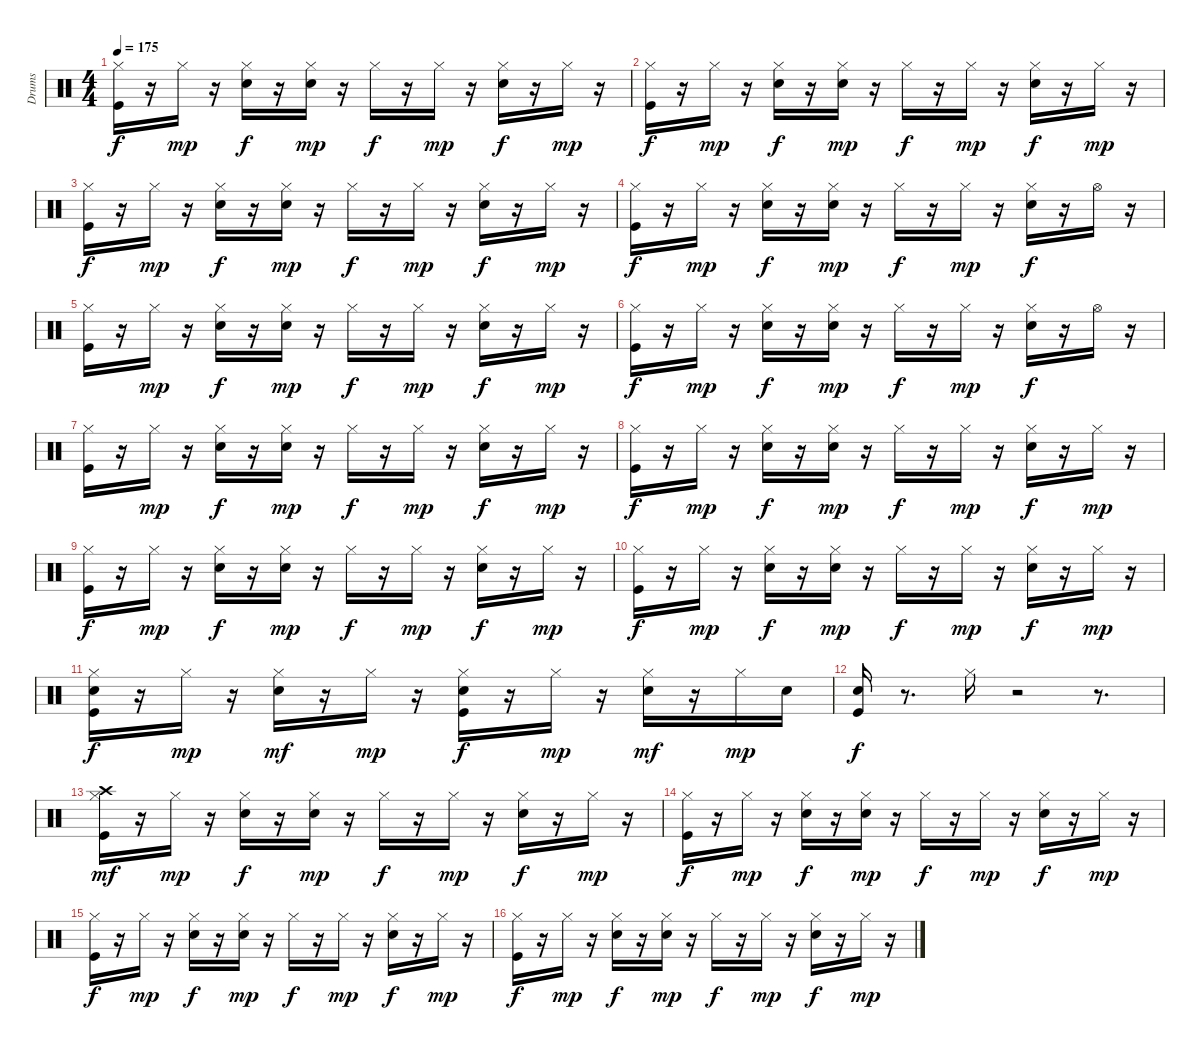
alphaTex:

\track ("Drums" "Drums") {instrument percussion}
\staff {score}
\articulation defaults
\ts (4 4)
\tempo 175
\clef neutral
\ks c
("Kick (hit)" "Hi-Hat (closed)").16{dy f} r.16 "Hi-Hat (closed)".16{dy mp} r.16 ("Snare (hit) 2" "Hi-Hat (closed)").16{dy f} r.16 ("Snare (hit) 2" "Hi-Hat (closed)").16{dy mp} r.16 "Hi-Hat (closed)".16{dy f} r.16 "Hi-Hat (closed)".16{dy mp} r.16 ("Snare (hit) 2" "Hi-Hat (closed)").16{dy f} r.16 "Hi-Hat (closed)".16{dy mp} r.16 |
("Kick (hit)" "Hi-Hat (closed)").16{dy f} r.16 "Hi-Hat (closed)".16{dy mp} r.16 ("Snare (hit) 2" "Hi-Hat (closed)").16{dy f} r.16 ("Snare (hit) 2" "Hi-Hat (closed)").16{dy mp} r.16 "Hi-Hat (closed)".16{dy f} r.16 "Hi-Hat (closed)".16{dy mp} r.16 ("Snare (hit) 2" "Hi-Hat (closed)").16{dy f} r.16 "Hi-Hat (closed)".16{dy mp} r.16 |
("Kick (hit)" "Hi-Hat (closed)").16{dy f} r.16 "Hi-Hat (closed)".16{dy mp} r.16 ("Snare (hit) 2" "Hi-Hat (closed)").16{dy f} r.16 ("Snare (hit) 2" "Hi-Hat (closed)").16{dy mp} r.16 "Hi-Hat (closed)".16{dy f} r.16 "Hi-Hat (closed)".16{dy mp} r.16 ("Snare (hit) 2" "Hi-Hat (closed)").16{dy f} r.16 "Hi-Hat (closed)".16{dy mp} r.16 |
("Kick (hit)" "Hi-Hat (closed)").16{dy f} r.16 "Hi-Hat (closed)".16{dy mp} r.16 ("Snare (hit) 2" "Hi-Hat (closed)").16{dy f} r.16 ("Snare (hit) 2" "Hi-Hat (closed)").16{dy mp} r.16 "Hi-Hat (closed)".16{dy f} r.16 "Hi-Hat (closed)".16{dy mp} r.16 ("Snare (hit) 2" "Hi-Hat (closed)").16{dy f} r.16 "Hi-Hat (open)".16 r.16 |
("Kick (hit)" "Hi-Hat (closed)").16 r.16 "Hi-Hat (closed)".16{dy mp} r.16 ("Snare (hit) 2" "Hi-Hat (closed)").16{dy f} r.16 ("Snare (hit) 2" "Hi-Hat (closed)").16{dy mp} r.16 "Hi-Hat (closed)".16{dy f} r.16 "Hi-Hat (closed)".16{dy mp} r.16 ("Snare (hit) 2" "Hi-Hat (closed)").16{dy f} r.16 "Hi-Hat (closed)".16{dy mp} r.16 |
("Kick (hit)" "Hi-Hat (closed)").16{dy f} r.16 "Hi-Hat (closed)".16{dy mp} r.16 ("Snare (hit) 2" "Hi-Hat (closed)").16{dy f} r.16 ("Snare (hit) 2" "Hi-Hat (closed)").16{dy mp} r.16 "Hi-Hat (closed)".16{dy f} r.16 "Hi-Hat (closed)".16{dy mp} r.16 ("Snare (hit) 2" "Hi-Hat (closed)").16{dy f} r.16 "Hi-Hat (open)".16 r.16 |
("Kick (hit)" "Hi-Hat (closed)").16 r.16 "Hi-Hat (closed)".16{dy mp} r.16 ("Snare (hit) 2" "Hi-Hat (closed)").16{dy f} r.16 ("Snare (hit) 2" "Hi-Hat (closed)").16{dy mp} r.16 "Hi-Hat (closed)".16{dy f} r.16 "Hi-Hat (closed)".16{dy mp} r.16 ("Snare (hit) 2" "Hi-Hat (closed)").16{dy f} r.16 "Hi-Hat (closed)".16{dy mp} r.16 |
("Kick (hit)" "Hi-Hat (closed)").16{dy f} r.16 "Hi-Hat (closed)".16{dy mp} r.16 ("Snare (hit) 2" "Hi-Hat (closed)").16{dy f} r.16 ("Snare (hit) 2" "Hi-Hat (closed)").16{dy mp} r.16 "Hi-Hat (closed)".16{dy f} r.16 "Hi-Hat (closed)".16{dy mp} r.16 ("Snare (hit) 2" "Hi-Hat (closed)").16{dy f} r.16 "Hi-Hat (closed)".16{dy mp} r.16 |
("Kick (hit)" "Hi-Hat (closed)").16{dy f} r.16 "Hi-Hat (closed)".16{dy mp} r.16 ("Snare (hit) 2" "Hi-Hat (closed)").16{dy f} r.16 ("Snare (hit) 2" "Hi-Hat (closed)").16{dy mp} r.16 "Hi-Hat (closed)".16{dy f} r.16 "Hi-Hat (closed)".16{dy mp} r.16 ("Snare (hit) 2" "Hi-Hat (closed)").16{dy f} r.16 "Hi-Hat (closed)".16{dy mp} r.16 |
("Kick (hit)" "Hi-Hat (closed)").16{dy f} r.16 "Hi-Hat (closed)".16{dy mp} r.16 ("Snare (hit) 2" "Hi-Hat (closed)").16{dy f} r.16 ("Snare (hit) 2" "Hi-Hat (closed)").16{dy mp} r.16 "Hi-Hat (closed)".16{dy f} r.16 "Hi-Hat (closed)".16{dy mp} r.16 ("Snare (hit) 2" "Hi-Hat (closed)").16{dy f} r.16 "Hi-Hat (closed)".16{dy mp} r.16 |
("Kick (hit)" "Snare (hit) 2" "Hi-Hat (closed)").16{dy f} r.16 "Hi-Hat (closed)".16{dy mp} r.16 ("Snare (hit) 2" "Hi-Hat (closed)").16{dy mf} r.16 "Hi-Hat (closed)".16{dy mp} r.16 ("Kick (hit)" "Snare (hit) 2" "Hi-Hat (closed)").16{dy f} r.16 "Hi-Hat (closed)".16{dy mp} r.16 ("Snare (hit) 2" "Hi-Hat (closed)").16{dy mf} r.16 "Hi-Hat (closed)".16{dy mp} "Snare (hit) 2".16 |
("Kick (hit)" "Snare (hit) 2").16{dy f} r.8{d} "Hi-Hat (closed)".16 r.2 r.8{d} |
("Kick (hit)" "Hi-Hat (closed)" "Crash high (hit)").16{dy mf} r.16 "Hi-Hat (closed)".16{dy mp} r.16 ("Snare (hit) 2" "Hi-Hat (closed)").16{dy f} r.16 ("Snare (hit) 2" "Hi-Hat (closed)").16{dy mp} r.16 "Hi-Hat (closed)".16{dy f} r.16 "Hi-Hat (closed)".16{dy mp} r.16 ("Snare (hit) 2" "Hi-Hat (closed)").16{dy f} r.16 "Hi-Hat (closed)".16{dy mp} r.16 |
("Kick (hit)" "Hi-Hat (closed)").16{dy f} r.16 "Hi-Hat (closed)".16{dy mp} r.16 ("Snare (hit) 2" "Hi-Hat (closed)").16{dy f} r.16 ("Snare (hit) 2" "Hi-Hat (closed)").16{dy mp} r.16 "Hi-Hat (closed)".16{dy f} r.16 "Hi-Hat (closed)".16{dy mp} r.16 ("Snare (hit) 2" "Hi-Hat (closed)").16{dy f} r.16 "Hi-Hat (closed)".16{dy mp} r.16 |
("Kick (hit)" "Hi-Hat (closed)").16{dy f} r.16 "Hi-Hat (closed)".16{dy mp} r.16 ("Snare (hit) 2" "Hi-Hat (closed)").16{dy f} r.16 ("Snare (hit) 2" "Hi-Hat (closed)").16{dy mp} r.16 "Hi-Hat (closed)".16{dy f} r.16 "Hi-Hat (closed)".16{dy mp} r.16 ("Snare (hit) 2" "Hi-Hat (closed)").16{dy f} r.16 "Hi-Hat (closed)".16{dy mp} r.16 |
("Kick (hit)" "Hi-Hat (closed)").16{dy f} r.16 "Hi-Hat (closed)".16{dy mp} r.16 ("Snare (hit) 2" "Hi-Hat (closed)").16{dy f} r.16 ("Snare (hit) 2" "Hi-Hat (closed)").16{dy mp} r.16 "Hi-Hat (closed)".16{dy f} r.16 "Hi-Hat (closed)".16{dy mp} r.16 ("Snare (hit) 2" "Hi-Hat (closed)").16{dy f} r.16 "Hi-Hat (closed)".16{dy mp} r.16
